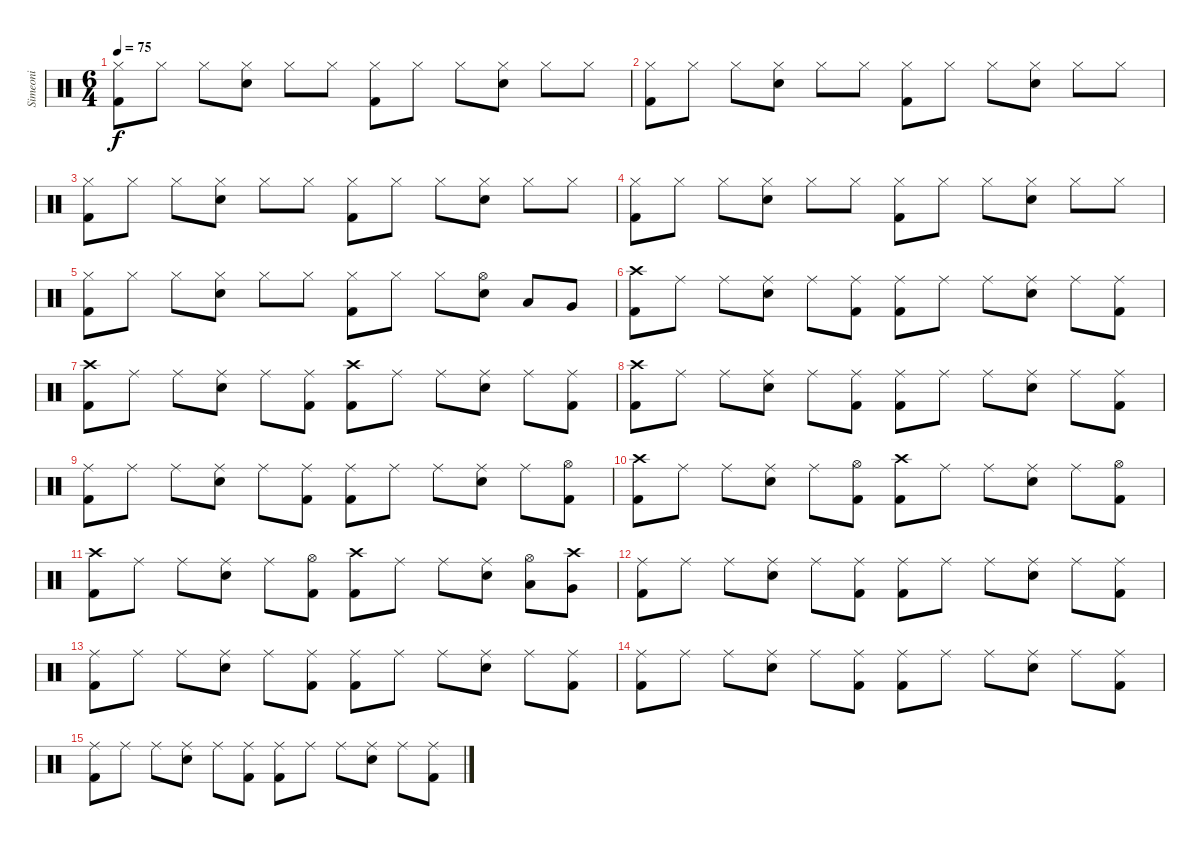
\track ("Simeoni" "Simeoni") {instrument percussion}
\staff {score}
\articulation defaults
\ts (6 4)
\tempo 75
\clef neutral
\ks c
("Hi-Hat (closed)" "Kick (hit) 2").8{dy f} "Hi-Hat (closed)".8 "Hi-Hat (closed)".8 ("Hi-Hat (closed)" "Electric Snare (hit)").8 "Hi-Hat (closed)".8 "Hi-Hat (closed)".8 ("Hi-Hat (closed)" "Kick (hit) 2").8 "Hi-Hat (closed)".8 "Hi-Hat (closed)".8 ("Hi-Hat (closed)" "Electric Snare (hit)").8 "Hi-Hat (closed)".8 "Hi-Hat (closed)".8 |
("Hi-Hat (closed)" "Kick (hit) 2").8 "Hi-Hat (closed)".8 "Hi-Hat (closed)".8 ("Hi-Hat (closed)" "Electric Snare (hit)").8 "Hi-Hat (closed)".8 "Hi-Hat (closed)".8 ("Hi-Hat (closed)" "Kick (hit) 2").8 "Hi-Hat (closed)".8 "Hi-Hat (closed)".8 ("Hi-Hat (closed)" "Electric Snare (hit)").8 "Hi-Hat (closed)".8 "Hi-Hat (closed)".8 |
("Hi-Hat (closed)" "Kick (hit) 2").8 "Hi-Hat (closed)".8 "Hi-Hat (closed)".8 ("Hi-Hat (closed)" "Electric Snare (hit)").8 "Hi-Hat (closed)".8 "Hi-Hat (closed)".8 ("Hi-Hat (closed)" "Kick (hit) 2").8 "Hi-Hat (closed)".8 "Hi-Hat (closed)".8 ("Hi-Hat (closed)" "Electric Snare (hit)").8 "Hi-Hat (closed)".8 "Hi-Hat (closed)".8 |
("Hi-Hat (closed)" "Kick (hit) 2").8 "Hi-Hat (closed)".8 "Hi-Hat (closed)".8 ("Hi-Hat (closed)" "Electric Snare (hit)").8 "Hi-Hat (closed)".8 "Hi-Hat (closed)".8 ("Hi-Hat (closed)" "Kick (hit) 2").8 "Hi-Hat (closed)".8 "Hi-Hat (closed)".8 ("Hi-Hat (closed)" "Electric Snare (hit)").8 "Hi-Hat (closed)".8 "Hi-Hat (closed)".8 |
("Hi-Hat (closed)" "Kick (hit) 2").8 "Hi-Hat (closed)".8 "Hi-Hat (closed)".8 ("Hi-Hat (closed)" "Electric Snare (hit)").8 "Hi-Hat (closed)".8 "Hi-Hat (closed)".8 ("Hi-Hat (closed)" "Kick (hit) 2").8 "Hi-Hat (closed)".8 "Hi-Hat (closed)".8 ("Hi-Hat (open)" "Electric Snare (hit)").8 "Low Tom (hit)".8 "Very Low Tom (hit)".8 |
("Crash high (hit)" "Kick (hit) 2").8 "Ride (middle)".8 "Ride (middle)".8 ("Ride (middle)" "Electric Snare (hit)").8 "Ride (middle)".8 ("Ride (middle)" "Kick (hit) 2").8 ("Ride (middle)" "Kick (hit) 2").8 "Ride (middle)".8 "Ride (middle)".8 ("Ride (middle)" "Electric Snare (hit)").8 "Ride (middle)".8 ("Ride (middle)" "Kick (hit) 2").8 |
("Crash high (hit)" "Kick (hit) 2").8 "Ride (middle)".8 "Ride (middle)".8 ("Ride (middle)" "Electric Snare (hit)").8 "Ride (middle)".8 ("Ride (middle)" "Kick (hit) 2").8 ("Crash high (hit)" "Kick (hit) 2").8 "Ride (middle)".8 "Ride (middle)".8 ("Ride (middle)" "Electric Snare (hit)").8 "Ride (middle)".8 ("Ride (middle)" "Kick (hit) 2").8 |
("Crash high (hit)" "Kick (hit) 2").8 "Ride (middle)".8 "Ride (middle)".8 ("Ride (middle)" "Electric Snare (hit)").8 "Ride (middle)".8 ("Ride (middle)" "Kick (hit) 2").8 ("Ride (middle)" "Kick (hit) 2").8 "Ride (middle)".8 "Ride (middle)".8 ("Ride (middle)" "Electric Snare (hit)").8 "Ride (middle)".8 ("Ride (middle)" "Kick (hit) 2").8 |
("Ride (middle)" "Kick (hit) 2").8 "Ride (middle)".8 "Ride (middle)".8 ("Ride (middle)" "Electric Snare (hit)").8 "Ride (middle)".8 ("Ride (middle)" "Kick (hit) 2").8 ("Ride (middle)" "Kick (hit) 2").8 "Ride (middle)".8 "Ride (middle)".8 ("Ride (middle)" "Electric Snare (hit)").8 "Ride (middle)".8 ("Hi-Hat (open)" "Kick (hit) 2").8 |
("Crash high (hit)" "Kick (hit) 2").8 "Ride (middle)".8 "Ride (middle)".8 ("Ride (middle)" "Electric Snare (hit)").8 "Ride (middle)".8 ("Hi-Hat (open)" "Kick (hit) 2").8 ("Crash high (hit)" "Kick (hit) 2").8 "Ride (middle)".8 "Ride (middle)".8 ("Ride (middle)" "Electric Snare (hit)").8 "Ride (middle)".8 ("Hi-Hat (open)" "Kick (hit) 2").8 |
("Crash high (hit)" "Kick (hit) 2").8 "Ride (middle)".8 "Ride (middle)".8 ("Ride (middle)" "Electric Snare (hit)").8 "Ride (middle)".8 ("Hi-Hat (open)" "Kick (hit) 2").8 ("Crash high (hit)" "Kick (hit) 2").8 "Ride (middle)".8 "Ride (middle)".8 ("Ride (middle)" "Electric Snare (hit)").8 ("Hi-Hat (open)" "Low Tom (hit)").8 ("Crash high (hit)" "Very Low Tom (hit)").8 |
("Ride (middle)" "Kick (hit) 2").8 "Ride (middle)".8 "Ride (middle)".8 ("Ride (middle)" "Electric Snare (hit)").8 "Ride (middle)".8 ("Ride (middle)" "Kick (hit) 2").8 ("Ride (middle)" "Kick (hit) 2").8 "Ride (middle)".8 "Ride (middle)".8 ("Ride (middle)" "Electric Snare (hit)").8 "Ride (middle)".8 ("Ride (middle)" "Kick (hit) 2").8 |
("Ride (middle)" "Kick (hit) 2").8 "Ride (middle)".8 "Ride (middle)".8 ("Ride (middle)" "Electric Snare (hit)").8 "Ride (middle)".8 ("Ride (middle)" "Kick (hit) 2").8 ("Ride (middle)" "Kick (hit) 2").8 "Ride (middle)".8 "Ride (middle)".8 ("Ride (middle)" "Electric Snare (hit)").8 "Ride (middle)".8 ("Ride (middle)" "Kick (hit) 2").8 |
("Ride (middle)" "Kick (hit) 2").8 "Ride (middle)".8 "Ride (middle)".8 ("Ride (middle)" "Electric Snare (hit)").8 "Ride (middle)".8 ("Ride (middle)" "Kick (hit) 2").8 ("Ride (middle)" "Kick (hit) 2").8 "Ride (middle)".8 "Ride (middle)".8 ("Ride (middle)" "Electric Snare (hit)").8 "Ride (middle)".8 ("Ride (middle)" "Kick (hit) 2").8 |
("Ride (middle)" "Kick (hit) 2").8 "Ride (middle)".8 "Ride (middle)".8 ("Ride (middle)" "Electric Snare (hit)").8 "Ride (middle)".8 ("Ride (middle)" "Kick (hit) 2").8 ("Ride (middle)" "Kick (hit) 2").8 "Ride (middle)".8 "Ride (middle)".8 ("Ride (middle)" "Electric Snare (hit)").8 "Ride (middle)".8 ("Ride (middle)" "Kick (hit) 2").8
